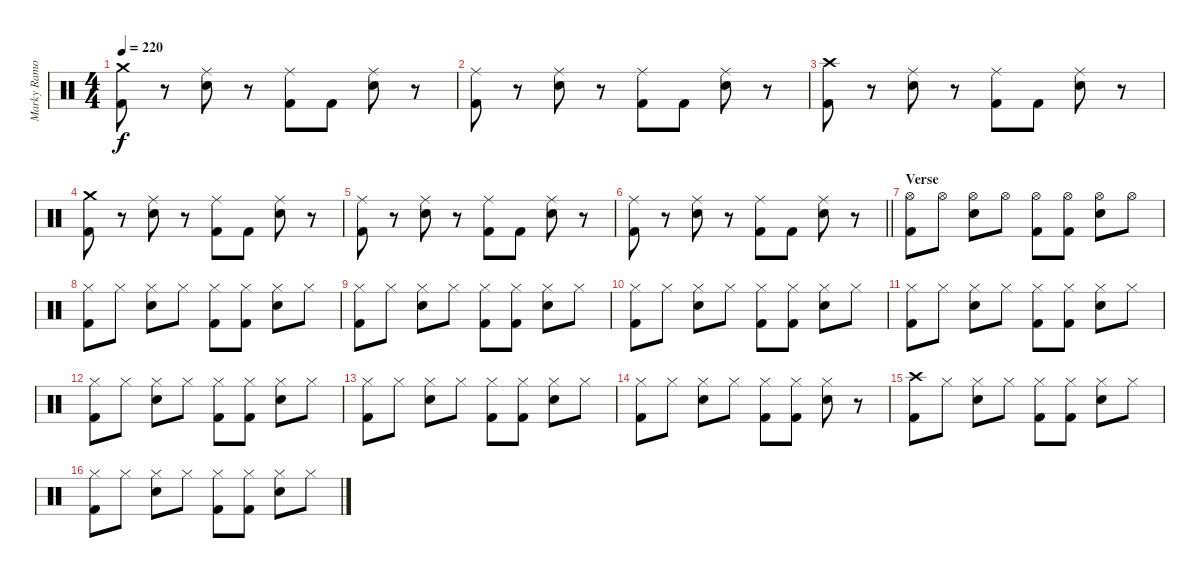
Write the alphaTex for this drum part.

\track ("Marky Ramone" "Marky Ramo") {instrument percussion}
\staff {score}
\articulation defaults
\ts (4 4)
\tempo 220
\clef neutral
\ks c
("Crash medium (hit)" "Kick (hit) 2").8{dy f} r.8 ("Ride (middle)" "Electric Snare (hit)").8 r.8 ("Ride (middle)" "Kick (hit) 2").8 "Kick (hit) 2".8 ("Ride (middle)" "Electric Snare (hit)").8 r.8 |
("Ride (middle)" "Kick (hit) 2").8 r.8 ("Ride (middle)" "Electric Snare (hit)").8 r.8 ("Ride (middle)" "Kick (hit) 2").8 "Kick (hit) 2".8 ("Ride (middle)" "Electric Snare (hit)").8 r.8 |
("Crash high (hit)" "Kick (hit) 2").8 r.8 ("Ride (middle)" "Electric Snare (hit)").8 r.8 ("Ride (middle)" "Kick (hit) 2").8 "Kick (hit) 2".8 ("Ride (middle)" "Electric Snare (hit)").8 r.8 |
("Crash medium (hit)" "Kick (hit) 2").8 r.8 ("Ride (middle)" "Electric Snare (hit)").8 r.8 ("Ride (middle)" "Kick (hit) 2").8 "Kick (hit) 2".8 ("Ride (middle)" "Electric Snare (hit)").8 r.8 |
("Ride (middle)" "Kick (hit) 2").8 r.8 ("Ride (middle)" "Electric Snare (hit)").8 r.8 ("Ride (middle)" "Kick (hit) 2").8 "Kick (hit) 2".8 ("Ride (middle)" "Electric Snare (hit)").8 r.8 |
\barLineRight lightlight
("Ride (middle)" "Kick (hit) 2").8 r.8 ("Ride (middle)" "Electric Snare (hit)").8 r.8 ("Ride (middle)" "Kick (hit) 2").8 "Kick (hit) 2".8 ("Ride (middle)" "Electric Snare (hit)").8 r.8 |
\section ("" "Verse")
("Hi-Hat (open)" "Kick (hit) 2").8 "Hi-Hat (open)".8 ("Hi-Hat (open)" "Electric Snare (hit)").8 "Hi-Hat (open)".8 ("Hi-Hat (open)" "Kick (hit) 2").8 ("Hi-Hat (open)" "Kick (hit) 2").8 ("Hi-Hat (open)" "Electric Snare (hit)").8 "Hi-Hat (open)".8 |
("Hi-Hat (closed)" "Kick (hit) 2").8 "Hi-Hat (closed)".8 ("Hi-Hat (closed)" "Electric Snare (hit)").8 "Hi-Hat (closed)".8 ("Hi-Hat (closed)" "Kick (hit) 2").8 ("Hi-Hat (closed)" "Kick (hit) 2").8 ("Hi-Hat (closed)" "Electric Snare (hit)").8 "Hi-Hat (closed)".8 |
("Hi-Hat (closed)" "Kick (hit) 2").8 "Hi-Hat (closed)".8 ("Hi-Hat (closed)" "Electric Snare (hit)").8 "Hi-Hat (closed)".8 ("Hi-Hat (closed)" "Kick (hit) 2").8 ("Hi-Hat (closed)" "Kick (hit) 2").8 ("Hi-Hat (closed)" "Electric Snare (hit)").8 "Hi-Hat (closed)".8 |
("Hi-Hat (closed)" "Kick (hit) 2").8 "Hi-Hat (closed)".8 ("Hi-Hat (closed)" "Electric Snare (hit)").8 "Hi-Hat (closed)".8 ("Hi-Hat (closed)" "Kick (hit) 2").8 ("Hi-Hat (closed)" "Kick (hit) 2").8 ("Hi-Hat (closed)" "Electric Snare (hit)").8 "Hi-Hat (closed)".8 |
("Hi-Hat (closed)" "Kick (hit) 2").8 "Hi-Hat (closed)".8 ("Hi-Hat (closed)" "Electric Snare (hit)").8 "Hi-Hat (closed)".8 ("Hi-Hat (closed)" "Kick (hit) 2").8 ("Hi-Hat (closed)" "Kick (hit) 2").8 ("Hi-Hat (closed)" "Electric Snare (hit)").8 "Hi-Hat (closed)".8 |
("Hi-Hat (closed)" "Kick (hit) 2").8 "Hi-Hat (closed)".8 ("Hi-Hat (closed)" "Electric Snare (hit)").8 "Hi-Hat (closed)".8 ("Hi-Hat (closed)" "Kick (hit) 2").8 ("Hi-Hat (closed)" "Kick (hit) 2").8 ("Hi-Hat (closed)" "Electric Snare (hit)").8 "Hi-Hat (closed)".8 |
("Hi-Hat (closed)" "Kick (hit) 2").8 "Hi-Hat (closed)".8 ("Hi-Hat (closed)" "Electric Snare (hit)").8 "Hi-Hat (closed)".8 ("Hi-Hat (closed)" "Kick (hit) 2").8 ("Hi-Hat (closed)" "Kick (hit) 2").8 ("Hi-Hat (closed)" "Electric Snare (hit)").8 "Hi-Hat (closed)".8 |
("Hi-Hat (closed)" "Kick (hit) 2").8 "Hi-Hat (closed)".8 ("Hi-Hat (closed)" "Electric Snare (hit)").8 "Hi-Hat (closed)".8 ("Hi-Hat (closed)" "Kick (hit) 2").8 ("Hi-Hat (closed)" "Kick (hit) 2").8 ("Hi-Hat (closed)" "Electric Snare (hit)").8 r.8 |
("Crash high (hit)" "Kick (hit) 2").8 "Hi-Hat (closed)".8 ("Hi-Hat (closed)" "Electric Snare (hit)").8 "Hi-Hat (closed)".8 ("Hi-Hat (closed)" "Kick (hit) 2").8 ("Hi-Hat (closed)" "Kick (hit) 2").8 ("Hi-Hat (closed)" "Electric Snare (hit)").8 "Hi-Hat (closed)".8 |
("Hi-Hat (closed)" "Kick (hit) 2").8 "Hi-Hat (closed)".8 ("Hi-Hat (closed)" "Electric Snare (hit)").8 "Hi-Hat (closed)".8 ("Hi-Hat (closed)" "Kick (hit) 2").8 ("Hi-Hat (closed)" "Kick (hit) 2").8 ("Hi-Hat (closed)" "Electric Snare (hit)").8 "Hi-Hat (closed)".8
